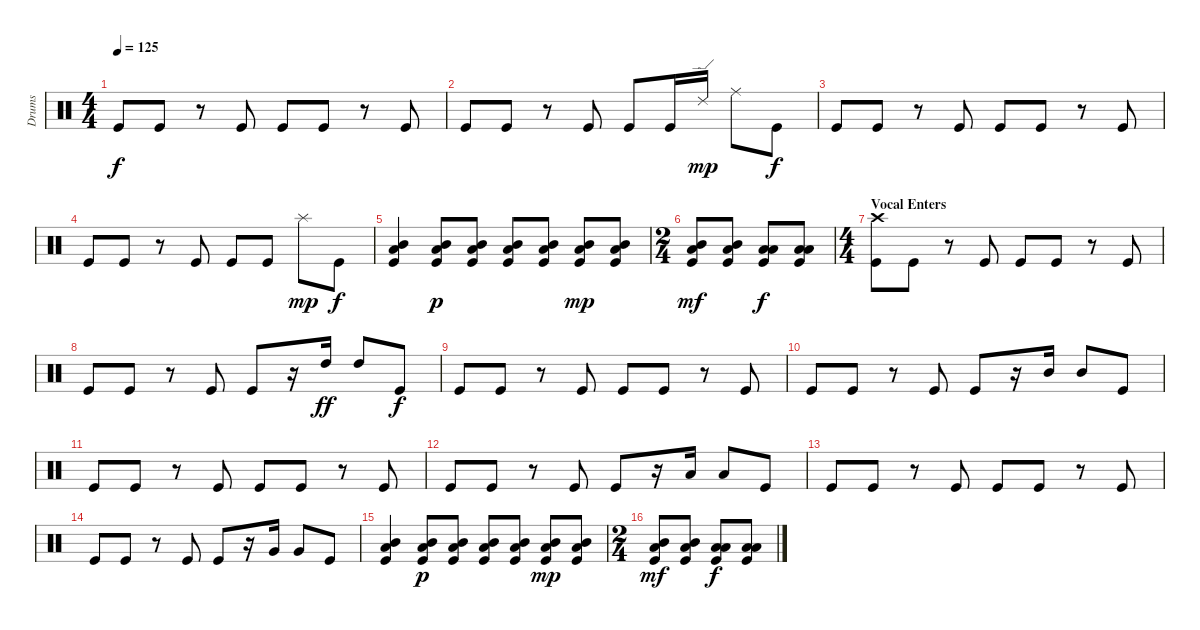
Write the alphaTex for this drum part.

\track ("Drums" "Drums") {instrument percussion}
\staff {score}
\articulation defaults
\ts (4 4)
\tempo 125
\clef neutral
\ks c "Kick (hit)".8{dy f} "Kick (hit)".8
r.8 "Kick (hit)".8 "Kick (hit)".8 "Kick (hit)".8 r.8 "Kick (hit)".8 |
"Kick (hit)".8 "Kick (hit)".8 r.8 "Kick (hit)".8 "Kick (hit)".8 "Kick (hit)".16 "Ride (edge) 2".16{dy mp} "Ride (middle)".8 "Kick (hit)".8{dy f} |
"Kick (hit)".8 "Kick (hit)".8 r.8 "Kick (hit)".8 "Kick (hit)".8 "Kick (hit)".8 r.8 "Kick (hit)".8 |
"Kick (hit)".8 "Kick (hit)".8 r.8 "Kick (hit)".8 "Kick (hit)".8 "Kick (hit)".8 "Splash (hit)".8{dy mp} "Kick (hit)".8{dy f} |
("Mid Tom (hit)" "Low Floor Tom (hit)" "Kick (hit)").4 ("Mid Tom (hit)" "Low Floor Tom (hit)" "Kick (hit)").8{dy p} ("Mid Tom (hit)" "Low Floor Tom (hit)" "Kick (hit)").8 ("Mid Tom (hit)" "Low Floor Tom (hit)" "Kick (hit)").8 ("Mid Tom (hit)" "Low Floor Tom (hit)" "Kick (hit)").8 ("Mid Tom (hit)" "Low Floor Tom (hit)" "Kick (hit)").8{dy mp} ("Mid Tom (hit)" "Low Floor Tom (hit)" "Kick (hit)").8 |
\ts (2 4)
("Mid Tom (hit)" "Low Floor Tom (hit)" "Kick (hit)").8{dy mf} ("Mid Tom (hit)" "Low Floor Tom (hit)" "Kick (hit)").8 ("Low Tom (hit)" "Low Floor Tom (hit)" "Kick (hit)").8{dy f} ("Low Tom (hit)" "Low Floor Tom (hit)" "Kick (hit)").8 |
\ts (4 4)
\section ("" "Vocal Enters")
("Crash high (hit)" "Kick (hit)").8 "Kick (hit)".8 r.8 "Kick (hit)".8 "Kick (hit)".8 "Kick (hit)".8 r.8 "Kick (hit)".8 |
"Kick (hit)".8 "Kick (hit)".8 r.8 "Kick (hit)".8 "Kick (hit)".8 r.16 "High Tom (hit)".16{dy ff} "High Tom (hit)".8 "Kick (hit)".8{dy f} |
"Kick (hit)".8 "Kick (hit)".8 r.8 "Kick (hit)".8 "Kick (hit)".8 "Kick (hit)".8 r.8 "Kick (hit)".8 |
"Kick (hit)".8 "Kick (hit)".8 r.8 "Kick (hit)".8 "Kick (hit)".8 r.16 "Mid Tom (hit)".16 "Mid Tom (hit)".8 "Kick (hit)".8 |
"Kick (hit)".8 "Kick (hit)".8 r.8 "Kick (hit)".8 "Kick (hit)".8 "Kick (hit)".8 r.8 "Kick (hit)".8 |
"Kick (hit)".8 "Kick (hit)".8 r.8 "Kick (hit)".8 "Kick (hit)".8 r.16 "Low Tom (hit)".16 "Low Tom (hit)".8 "Kick (hit)".8 |
"Kick (hit)".8 "Kick (hit)".8 r.8 "Kick (hit)".8 "Kick (hit)".8 "Kick (hit)".8 r.8 "Kick (hit)".8 |
"Kick (hit)".8 "Kick (hit)".8 r.8 "Kick (hit)".8 "Kick (hit)".8 r.16 "Very Low Tom (hit)".16 "Very Low Tom (hit)".8 "Kick (hit)".8 |
("Mid Tom (hit)" "Low Floor Tom (hit)" "Kick (hit)").4 ("Mid Tom (hit)" "Low Floor Tom (hit)" "Kick (hit)").8{dy p} ("Mid Tom (hit)" "Low Floor Tom (hit)" "Kick (hit)").8 ("Mid Tom (hit)" "Low Floor Tom (hit)" "Kick (hit)").8 ("Mid Tom (hit)" "Low Floor Tom (hit)" "Kick (hit)").8 ("Mid Tom (hit)" "Low Floor Tom (hit)" "Kick (hit)").8{dy mp} ("Mid Tom (hit)" "Low Floor Tom (hit)" "Kick (hit)").8 |
\ts (2 4)
("Mid Tom (hit)" "Low Floor Tom (hit)" "Kick (hit)").8{dy mf} ("Mid Tom (hit)" "Low Floor Tom (hit)" "Kick (hit)").8 ("Low Tom (hit)" "Low Floor Tom (hit)" "Kick (hit)").8{dy f} ("Low Tom (hit)" "Low Floor Tom (hit)" "Kick (hit)").8
